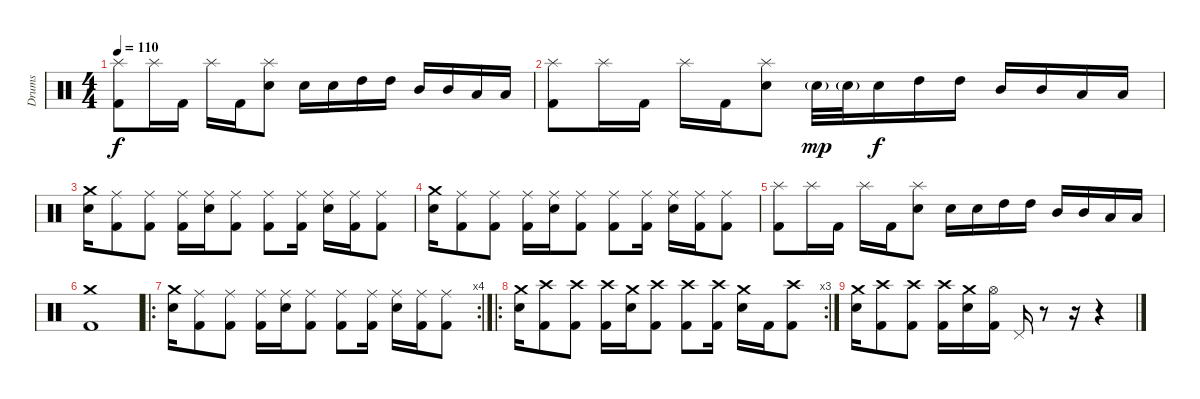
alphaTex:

\track ("Drums" "Drums") {instrument percussion}
\staff {score}
\articulation defaults
\ts (4 4)
\tempo 110
\clef neutral
\ks c
("Splash (hit)" "Kick (hit) 2").8{dy f} "Splash (hit)".16 "Kick (hit) 2".16 "Splash (hit)".16 "Kick (hit) 2".16 ("Splash (hit)" "Electric Snare (hit)").8 "Electric Snare (hit)".16 "Electric Snare (hit)".16 "High Tom (hit)".16 "High Tom (hit)".16 "Mid Tom (hit)".16 "Mid Tom (hit)".16 "Low Tom (hit)".16 "Low Tom (hit)".16 |
("Splash (hit)" "Kick (hit) 2").8 "Splash (hit)".16 "Kick (hit) 2".16 "Splash (hit)".16 "Kick (hit) 2".16 ("Splash (hit)" "Electric Snare (hit)").8 "Electric Snare (hit)"{g}.32{dy mp} "Electric Snare (hit)"{g}.32 "Electric Snare (hit)".16{dy f} "High Tom (hit)".16 "High Tom (hit)".16 "Mid Tom (hit)".16 "Mid Tom (hit)".16 "Low Tom (hit)".16 "Low Tom (hit)".16 |
("Crash medium (hit)" "Electric Snare (hit)").16 ("Ride (middle)" "Kick (hit) 2").8 ("Ride (middle)" "Kick (hit) 2").8 ("Ride (middle)" "Kick (hit) 2").16 ("Ride (middle)" "Electric Snare (hit)").16 ("Ride (middle)" "Kick (hit) 2").8 ("Ride (middle)" "Kick (hit) 2").8 ("Ride (middle)" "Kick (hit) 2").16 ("Ride (middle)" "Electric Snare (hit)").16 ("Ride (middle)" "Kick (hit) 2").16 ("Ride (middle)" "Kick (hit) 2").8 |
("Crash medium (hit)" "Electric Snare (hit)").16 ("Ride (middle)" "Kick (hit) 2").8 ("Ride (middle)" "Kick (hit) 2").8 ("Ride (middle)" "Kick (hit) 2").16 ("Ride (middle)" "Electric Snare (hit)").16 ("Ride (middle)" "Kick (hit) 2").8 ("Ride (middle)" "Kick (hit) 2").8 ("Ride (middle)" "Kick (hit) 2").16 ("Ride (middle)" "Electric Snare (hit)").16 ("Ride (middle)" "Kick (hit) 2").16 ("Ride (middle)" "Kick (hit) 2").8 |
("Splash (hit)" "Kick (hit) 2").8 "Splash (hit)".16 "Kick (hit) 2".16 "Splash (hit)".16 "Kick (hit) 2".16 ("Splash (hit)" "Electric Snare (hit)").8 "Electric Snare (hit)".16 "Electric Snare (hit)".16 "High Tom (hit)".16 "High Tom (hit)".16 "Mid Tom (hit)".16 "Mid Tom (hit)".16 "Low Tom (hit)".16 "Low Tom (hit)".16 |
("Crash medium (hit)" "Kick (hit) 2").1 |
\ro
\rc 4
("Crash medium (hit)" "Electric Snare (hit)").16 ("Ride (middle)" "Kick (hit) 2").8 ("Ride (middle)" "Kick (hit) 2").8 ("Ride (middle)" "Kick (hit) 2").16 ("Ride (middle)" "Electric Snare (hit)").16 ("Ride (middle)" "Kick (hit) 2").8 ("Ride (middle)" "Kick (hit) 2").8 ("Ride (middle)" "Kick (hit) 2").16 ("Ride (middle)" "Electric Snare (hit)").16 ("Ride (middle)" "Kick (hit) 2").16 ("Ride (middle)" "Kick (hit) 2").8 |
\ro
\rc 3
("Crash medium (hit)" "Electric Snare (hit)").16 ("Crash high (hit)" "Kick (hit) 2").8 ("Crash high (hit)" "Kick (hit) 2").8 ("Crash high (hit)" "Kick (hit) 2").16 ("Crash medium (hit)" "Electric Snare (hit)").16 ("Crash high (hit)" "Kick (hit) 2").8 ("Crash high (hit)" "Kick (hit) 2").8 ("Crash high (hit)" "Kick (hit) 2").16 ("Crash medium (hit)" "Electric Snare (hit)").16 "Kick (hit) 2".16 ("Crash high (hit)" "Kick (hit) 2").8 |
("Crash medium (hit)" "Electric Snare (hit)").16 ("Crash high (hit)" "Kick (hit) 2").8 ("Crash high (hit)" "Kick (hit) 2").8 ("Crash high (hit)" "Kick (hit) 2").16 ("Crash medium (hit)" "Electric Snare (hit)").16 ("Hi-Hat (open)" "Kick (hit) 2").16 "Pedal Hi-Hat (hit)".16 r.8 r.16 r.4
